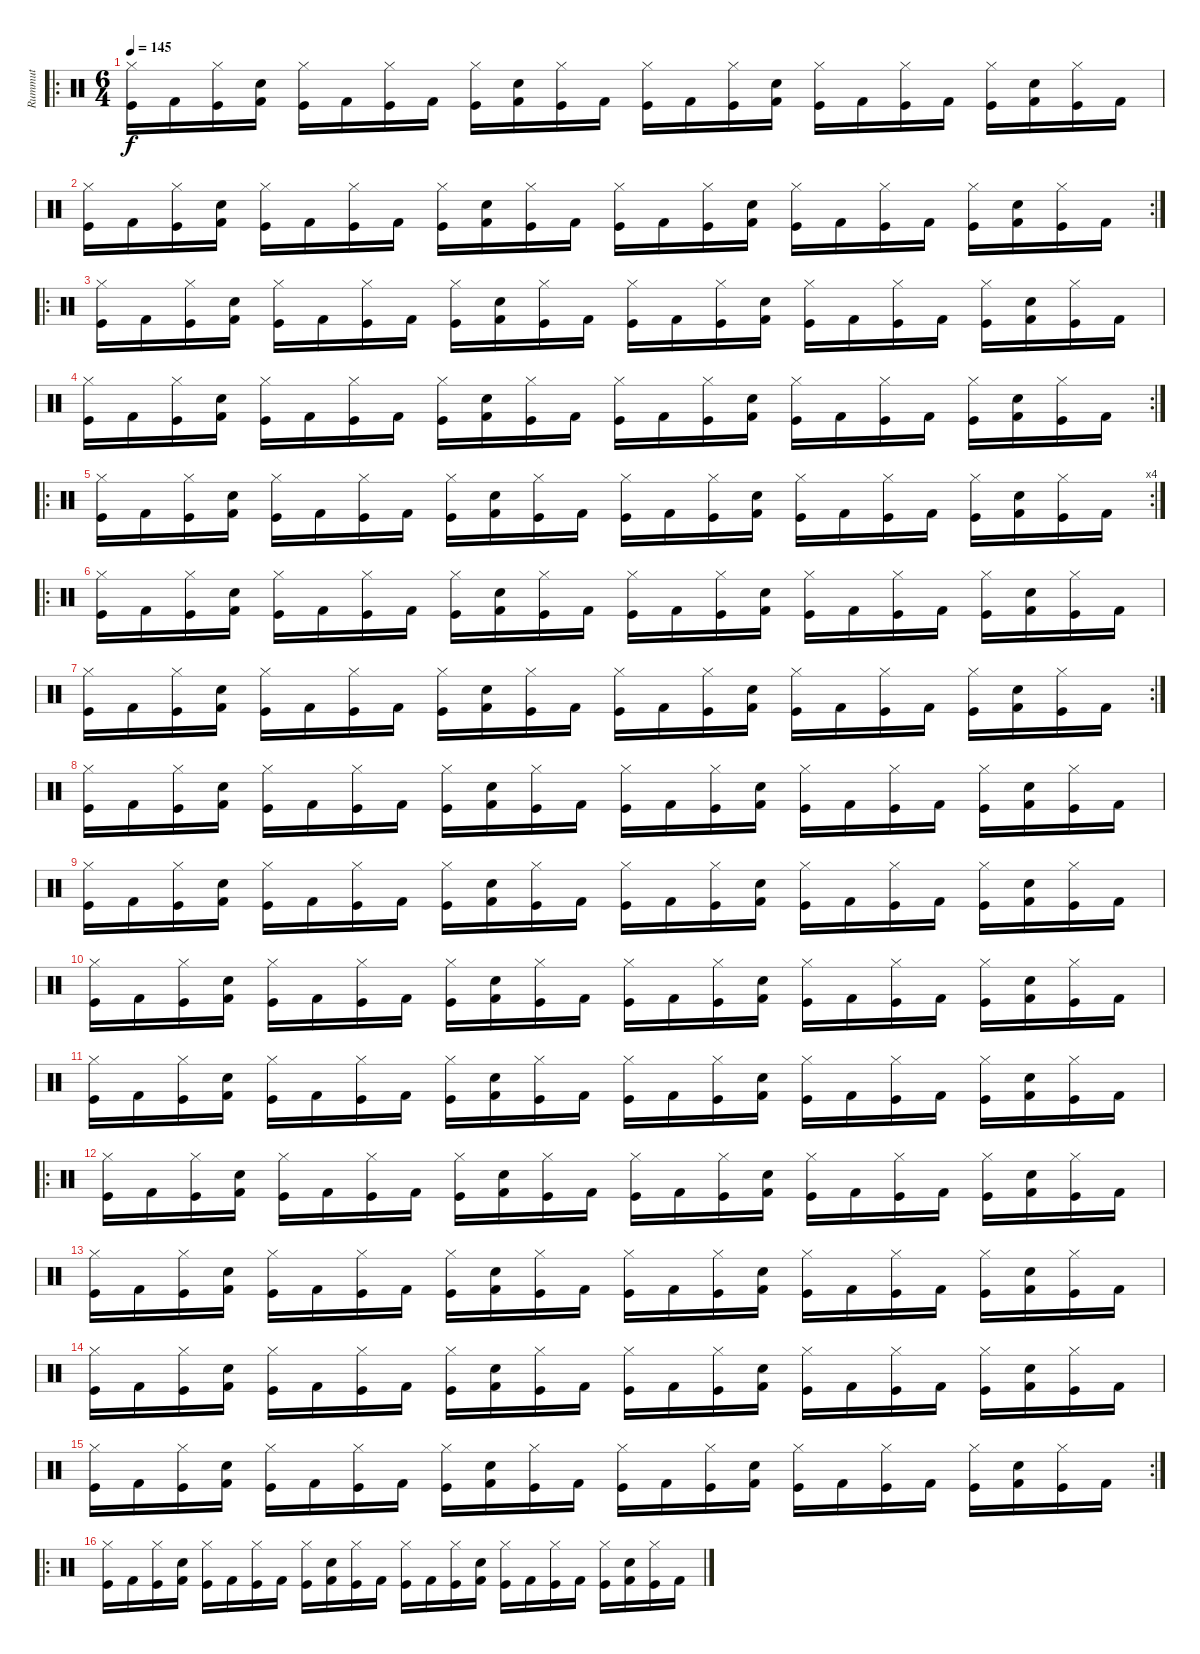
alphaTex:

\track ("Rummut" "Rummut") {instrument percussion}
\staff {score}
\articulation defaults
\ro
\ts (6 4)
\tempo 145
\clef neutral
\ks c
("Hi-Hat (closed)" "Kick (hit)").16{dy f} "Kick (hit) 2".16 ("Hi-Hat (closed)" "Kick (hit)").16 ("Snare (hit) 2" "Kick (hit) 2").16 ("Hi-Hat (closed)" "Kick (hit)").16 "Kick (hit) 2".16 ("Hi-Hat (closed)" "Kick (hit)").16 "Kick (hit) 2".16 ("Hi-Hat (closed)" "Kick (hit)").16 ("Snare (hit) 2" "Kick (hit) 2").16 ("Hi-Hat (closed)" "Kick (hit)").16 "Kick (hit) 2".16 ("Hi-Hat (closed)" "Kick (hit)").16 "Kick (hit) 2".16 ("Hi-Hat (closed)" "Kick (hit)").16 ("Snare (hit) 2" "Kick (hit) 2").16 ("Hi-Hat (closed)" "Kick (hit)").16 "Kick (hit) 2".16 ("Hi-Hat (closed)" "Kick (hit)").16 "Kick (hit) 2".16 ("Hi-Hat (closed)" "Kick (hit)").16 ("Snare (hit) 2" "Kick (hit) 2").16 ("Hi-Hat (closed)" "Kick (hit)").16 "Kick (hit) 2".16 |
\rc 2
("Hi-Hat (closed)" "Kick (hit)").16 "Kick (hit) 2".16 ("Hi-Hat (closed)" "Kick (hit)").16 ("Snare (hit) 2" "Kick (hit) 2").16 ("Hi-Hat (closed)" "Kick (hit)").16 "Kick (hit) 2".16 ("Hi-Hat (closed)" "Kick (hit)").16 "Kick (hit) 2".16 ("Hi-Hat (closed)" "Kick (hit)").16 ("Snare (hit) 2" "Kick (hit) 2").16 ("Hi-Hat (closed)" "Kick (hit)").16 "Kick (hit) 2".16 ("Hi-Hat (closed)" "Kick (hit)").16 "Kick (hit) 2".16 ("Hi-Hat (closed)" "Kick (hit)").16 ("Snare (hit) 2" "Kick (hit) 2").16 ("Hi-Hat (closed)" "Kick (hit)").16 "Kick (hit) 2".16 ("Hi-Hat (closed)" "Kick (hit)").16 "Kick (hit) 2".16 ("Hi-Hat (closed)" "Kick (hit)").16 ("Snare (hit) 2" "Kick (hit) 2").16 ("Hi-Hat (closed)" "Kick (hit)").16 "Kick (hit) 2".16 |
\ro
("Hi-Hat (closed)" "Kick (hit)").16 "Kick (hit) 2".16 ("Hi-Hat (closed)" "Kick (hit)").16 ("Snare (hit) 2" "Kick (hit) 2").16 ("Hi-Hat (closed)" "Kick (hit)").16 "Kick (hit) 2".16 ("Hi-Hat (closed)" "Kick (hit)").16 "Kick (hit) 2".16 ("Hi-Hat (closed)" "Kick (hit)").16 ("Snare (hit) 2" "Kick (hit) 2").16 ("Hi-Hat (closed)" "Kick (hit)").16 "Kick (hit) 2".16 ("Hi-Hat (closed)" "Kick (hit)").16 "Kick (hit) 2".16 ("Hi-Hat (closed)" "Kick (hit)").16 ("Snare (hit) 2" "Kick (hit) 2").16 ("Hi-Hat (closed)" "Kick (hit)").16 "Kick (hit) 2".16 ("Hi-Hat (closed)" "Kick (hit)").16 "Kick (hit) 2".16 ("Hi-Hat (closed)" "Kick (hit)").16 ("Snare (hit) 2" "Kick (hit) 2").16 ("Hi-Hat (closed)" "Kick (hit)").16 "Kick (hit) 2".16 |
\rc 2
("Hi-Hat (closed)" "Kick (hit)").16 "Kick (hit) 2".16 ("Hi-Hat (closed)" "Kick (hit)").16 ("Snare (hit) 2" "Kick (hit) 2").16 ("Hi-Hat (closed)" "Kick (hit)").16 "Kick (hit) 2".16 ("Hi-Hat (closed)" "Kick (hit)").16 "Kick (hit) 2".16 ("Hi-Hat (closed)" "Kick (hit)").16 ("Snare (hit) 2" "Kick (hit) 2").16 ("Hi-Hat (closed)" "Kick (hit)").16 "Kick (hit) 2".16 ("Hi-Hat (closed)" "Kick (hit)").16 "Kick (hit) 2".16 ("Hi-Hat (closed)" "Kick (hit)").16 ("Snare (hit) 2" "Kick (hit) 2").16 ("Hi-Hat (closed)" "Kick (hit)").16 "Kick (hit) 2".16 ("Hi-Hat (closed)" "Kick (hit)").16 "Kick (hit) 2".16 ("Hi-Hat (closed)" "Kick (hit)").16 ("Snare (hit) 2" "Kick (hit) 2").16 ("Hi-Hat (closed)" "Kick (hit)").16 "Kick (hit) 2".16 |
\ro
\rc 4
("Hi-Hat (closed)" "Kick (hit)").16 "Kick (hit) 2".16 ("Hi-Hat (closed)" "Kick (hit)").16 ("Snare (hit) 2" "Kick (hit) 2").16 ("Hi-Hat (closed)" "Kick (hit)").16 "Kick (hit) 2".16 ("Hi-Hat (closed)" "Kick (hit)").16 "Kick (hit) 2".16 ("Hi-Hat (closed)" "Kick (hit)").16 ("Snare (hit) 2" "Kick (hit) 2").16 ("Hi-Hat (closed)" "Kick (hit)").16 "Kick (hit) 2".16 ("Hi-Hat (closed)" "Kick (hit)").16 "Kick (hit) 2".16 ("Hi-Hat (closed)" "Kick (hit)").16 ("Snare (hit) 2" "Kick (hit) 2").16 ("Hi-Hat (closed)" "Kick (hit)").16 "Kick (hit) 2".16 ("Hi-Hat (closed)" "Kick (hit)").16 "Kick (hit) 2".16 ("Hi-Hat (closed)" "Kick (hit)").16 ("Snare (hit) 2" "Kick (hit) 2").16 ("Hi-Hat (closed)" "Kick (hit)").16 "Kick (hit) 2".16 |
\ro
("Hi-Hat (closed)" "Kick (hit)").16 "Kick (hit) 2".16 ("Hi-Hat (closed)" "Kick (hit)").16 ("Snare (hit) 2" "Kick (hit) 2").16 ("Hi-Hat (closed)" "Kick (hit)").16 "Kick (hit) 2".16 ("Hi-Hat (closed)" "Kick (hit)").16 "Kick (hit) 2".16 ("Hi-Hat (closed)" "Kick (hit)").16 ("Snare (hit) 2" "Kick (hit) 2").16 ("Hi-Hat (closed)" "Kick (hit)").16 "Kick (hit) 2".16 ("Hi-Hat (closed)" "Kick (hit)").16 "Kick (hit) 2".16 ("Hi-Hat (closed)" "Kick (hit)").16 ("Snare (hit) 2" "Kick (hit) 2").16 ("Hi-Hat (closed)" "Kick (hit)").16 "Kick (hit) 2".16 ("Hi-Hat (closed)" "Kick (hit)").16 "Kick (hit) 2".16 ("Hi-Hat (closed)" "Kick (hit)").16 ("Snare (hit) 2" "Kick (hit) 2").16 ("Hi-Hat (closed)" "Kick (hit)").16 "Kick (hit) 2".16 |
\rc 2
("Hi-Hat (closed)" "Kick (hit)").16 "Kick (hit) 2".16 ("Hi-Hat (closed)" "Kick (hit)").16 ("Snare (hit) 2" "Kick (hit) 2").16 ("Hi-Hat (closed)" "Kick (hit)").16 "Kick (hit) 2".16 ("Hi-Hat (closed)" "Kick (hit)").16 "Kick (hit) 2".16 ("Hi-Hat (closed)" "Kick (hit)").16 ("Snare (hit) 2" "Kick (hit) 2").16 ("Hi-Hat (closed)" "Kick (hit)").16 "Kick (hit) 2".16 ("Hi-Hat (closed)" "Kick (hit)").16 "Kick (hit) 2".16 ("Hi-Hat (closed)" "Kick (hit)").16 ("Snare (hit) 2" "Kick (hit) 2").16 ("Hi-Hat (closed)" "Kick (hit)").16 "Kick (hit) 2".16 ("Hi-Hat (closed)" "Kick (hit)").16 "Kick (hit) 2".16 ("Hi-Hat (closed)" "Kick (hit)").16 ("Snare (hit) 2" "Kick (hit) 2").16 ("Hi-Hat (closed)" "Kick (hit)").16 "Kick (hit) 2".16 |
("Hi-Hat (closed)" "Kick (hit)").16 "Kick (hit) 2".16 ("Hi-Hat (closed)" "Kick (hit)").16 ("Snare (hit) 2" "Kick (hit) 2").16 ("Hi-Hat (closed)" "Kick (hit)").16 "Kick (hit) 2".16 ("Hi-Hat (closed)" "Kick (hit)").16 "Kick (hit) 2".16 ("Hi-Hat (closed)" "Kick (hit)").16 ("Snare (hit) 2" "Kick (hit) 2").16 ("Hi-Hat (closed)" "Kick (hit)").16 "Kick (hit) 2".16 ("Hi-Hat (closed)" "Kick (hit)").16 "Kick (hit) 2".16 ("Hi-Hat (closed)" "Kick (hit)").16 ("Snare (hit) 2" "Kick (hit) 2").16 ("Hi-Hat (closed)" "Kick (hit)").16 "Kick (hit) 2".16 ("Hi-Hat (closed)" "Kick (hit)").16 "Kick (hit) 2".16 ("Hi-Hat (closed)" "Kick (hit)").16 ("Snare (hit) 2" "Kick (hit) 2").16 ("Hi-Hat (closed)" "Kick (hit)").16 "Kick (hit) 2".16 |
("Hi-Hat (closed)" "Kick (hit)").16 "Kick (hit) 2".16 ("Hi-Hat (closed)" "Kick (hit)").16 ("Snare (hit) 2" "Kick (hit) 2").16 ("Hi-Hat (closed)" "Kick (hit)").16 "Kick (hit) 2".16 ("Hi-Hat (closed)" "Kick (hit)").16 "Kick (hit) 2".16 ("Hi-Hat (closed)" "Kick (hit)").16 ("Snare (hit) 2" "Kick (hit) 2").16 ("Hi-Hat (closed)" "Kick (hit)").16 "Kick (hit) 2".16 ("Hi-Hat (closed)" "Kick (hit)").16 "Kick (hit) 2".16 ("Hi-Hat (closed)" "Kick (hit)").16 ("Snare (hit) 2" "Kick (hit) 2").16 ("Hi-Hat (closed)" "Kick (hit)").16 "Kick (hit) 2".16 ("Hi-Hat (closed)" "Kick (hit)").16 "Kick (hit) 2".16 ("Hi-Hat (closed)" "Kick (hit)").16 ("Snare (hit) 2" "Kick (hit) 2").16 ("Hi-Hat (closed)" "Kick (hit)").16 "Kick (hit) 2".16 |
("Hi-Hat (closed)" "Kick (hit)").16 "Kick (hit) 2".16 ("Hi-Hat (closed)" "Kick (hit)").16 ("Snare (hit) 2" "Kick (hit) 2").16 ("Hi-Hat (closed)" "Kick (hit)").16 "Kick (hit) 2".16 ("Hi-Hat (closed)" "Kick (hit)").16 "Kick (hit) 2".16 ("Hi-Hat (closed)" "Kick (hit)").16 ("Snare (hit) 2" "Kick (hit) 2").16 ("Hi-Hat (closed)" "Kick (hit)").16 "Kick (hit) 2".16 ("Hi-Hat (closed)" "Kick (hit)").16 "Kick (hit) 2".16 ("Hi-Hat (closed)" "Kick (hit)").16 ("Snare (hit) 2" "Kick (hit) 2").16 ("Hi-Hat (closed)" "Kick (hit)").16 "Kick (hit) 2".16 ("Hi-Hat (closed)" "Kick (hit)").16 "Kick (hit) 2".16 ("Hi-Hat (closed)" "Kick (hit)").16 ("Snare (hit) 2" "Kick (hit) 2").16 ("Hi-Hat (closed)" "Kick (hit)").16 "Kick (hit) 2".16 |
("Hi-Hat (closed)" "Kick (hit)").16 "Kick (hit) 2".16 ("Hi-Hat (closed)" "Kick (hit)").16 ("Snare (hit) 2" "Kick (hit) 2").16 ("Hi-Hat (closed)" "Kick (hit)").16 "Kick (hit) 2".16 ("Hi-Hat (closed)" "Kick (hit)").16 "Kick (hit) 2".16 ("Hi-Hat (closed)" "Kick (hit)").16 ("Snare (hit) 2" "Kick (hit) 2").16 ("Hi-Hat (closed)" "Kick (hit)").16 "Kick (hit) 2".16 ("Hi-Hat (closed)" "Kick (hit)").16 "Kick (hit) 2".16 ("Hi-Hat (closed)" "Kick (hit)").16 ("Snare (hit) 2" "Kick (hit) 2").16 ("Hi-Hat (closed)" "Kick (hit)").16 "Kick (hit) 2".16 ("Hi-Hat (closed)" "Kick (hit)").16 "Kick (hit) 2".16 ("Hi-Hat (closed)" "Kick (hit)").16 ("Snare (hit) 2" "Kick (hit) 2").16 ("Hi-Hat (closed)" "Kick (hit)").16 "Kick (hit) 2".16 |
\ro
("Hi-Hat (closed)" "Kick (hit)").16 "Kick (hit) 2".16 ("Hi-Hat (closed)" "Kick (hit)").16 ("Snare (hit) 2" "Kick (hit) 2").16 ("Hi-Hat (closed)" "Kick (hit)").16 "Kick (hit) 2".16 ("Hi-Hat (closed)" "Kick (hit)").16 "Kick (hit) 2".16 ("Hi-Hat (closed)" "Kick (hit)").16 ("Snare (hit) 2" "Kick (hit) 2").16 ("Hi-Hat (closed)" "Kick (hit)").16 "Kick (hit) 2".16 ("Hi-Hat (closed)" "Kick (hit)").16 "Kick (hit) 2".16 ("Hi-Hat (closed)" "Kick (hit)").16 ("Snare (hit) 2" "Kick (hit) 2").16 ("Hi-Hat (closed)" "Kick (hit)").16 "Kick (hit) 2".16 ("Hi-Hat (closed)" "Kick (hit)").16 "Kick (hit) 2".16 ("Hi-Hat (closed)" "Kick (hit)").16 ("Snare (hit) 2" "Kick (hit) 2").16 ("Hi-Hat (closed)" "Kick (hit)").16 "Kick (hit) 2".16 |
("Hi-Hat (closed)" "Kick (hit)").16 "Kick (hit) 2".16 ("Hi-Hat (closed)" "Kick (hit)").16 ("Snare (hit) 2" "Kick (hit) 2").16 ("Hi-Hat (closed)" "Kick (hit)").16 "Kick (hit) 2".16 ("Hi-Hat (closed)" "Kick (hit)").16 "Kick (hit) 2".16 ("Hi-Hat (closed)" "Kick (hit)").16 ("Snare (hit) 2" "Kick (hit) 2").16 ("Hi-Hat (closed)" "Kick (hit)").16 "Kick (hit) 2".16 ("Hi-Hat (closed)" "Kick (hit)").16 "Kick (hit) 2".16 ("Hi-Hat (closed)" "Kick (hit)").16 ("Snare (hit) 2" "Kick (hit) 2").16 ("Hi-Hat (closed)" "Kick (hit)").16 "Kick (hit) 2".16 ("Hi-Hat (closed)" "Kick (hit)").16 "Kick (hit) 2".16 ("Hi-Hat (closed)" "Kick (hit)").16 ("Snare (hit) 2" "Kick (hit) 2").16 ("Hi-Hat (closed)" "Kick (hit)").16 "Kick (hit) 2".16 |
("Hi-Hat (closed)" "Kick (hit)").16 "Kick (hit) 2".16 ("Hi-Hat (closed)" "Kick (hit)").16 ("Snare (hit) 2" "Kick (hit) 2").16 ("Hi-Hat (closed)" "Kick (hit)").16 "Kick (hit) 2".16 ("Hi-Hat (closed)" "Kick (hit)").16 "Kick (hit) 2".16 ("Hi-Hat (closed)" "Kick (hit)").16 ("Snare (hit) 2" "Kick (hit) 2").16 ("Hi-Hat (closed)" "Kick (hit)").16 "Kick (hit) 2".16 ("Hi-Hat (closed)" "Kick (hit)").16 "Kick (hit) 2".16 ("Hi-Hat (closed)" "Kick (hit)").16 ("Snare (hit) 2" "Kick (hit) 2").16 ("Hi-Hat (closed)" "Kick (hit)").16 "Kick (hit) 2".16 ("Hi-Hat (closed)" "Kick (hit)").16 "Kick (hit) 2".16 ("Hi-Hat (closed)" "Kick (hit)").16 ("Snare (hit) 2" "Kick (hit) 2").16 ("Hi-Hat (closed)" "Kick (hit)").16 "Kick (hit) 2".16 |
\rc 2
("Hi-Hat (closed)" "Kick (hit)").16 "Kick (hit) 2".16 ("Hi-Hat (closed)" "Kick (hit)").16 ("Snare (hit) 2" "Kick (hit) 2").16 ("Hi-Hat (closed)" "Kick (hit)").16 "Kick (hit) 2".16 ("Hi-Hat (closed)" "Kick (hit)").16 "Kick (hit) 2".16 ("Hi-Hat (closed)" "Kick (hit)").16 ("Snare (hit) 2" "Kick (hit) 2").16 ("Hi-Hat (closed)" "Kick (hit)").16 "Kick (hit) 2".16 ("Hi-Hat (closed)" "Kick (hit)").16 "Kick (hit) 2".16 ("Hi-Hat (closed)" "Kick (hit)").16 ("Snare (hit) 2" "Kick (hit) 2").16 ("Hi-Hat (closed)" "Kick (hit)").16 "Kick (hit) 2".16 ("Hi-Hat (closed)" "Kick (hit)").16 "Kick (hit) 2".16 ("Hi-Hat (closed)" "Kick (hit)").16 ("Snare (hit) 2" "Kick (hit) 2").16 ("Hi-Hat (closed)" "Kick (hit)").16 "Kick (hit) 2".16 |
\ro
("Hi-Hat (closed)" "Kick (hit)").16 "Kick (hit) 2".16 ("Hi-Hat (closed)" "Kick (hit)").16 ("Snare (hit) 2" "Kick (hit) 2").16 ("Hi-Hat (closed)" "Kick (hit)").16 "Kick (hit) 2".16 ("Hi-Hat (closed)" "Kick (hit)").16 "Kick (hit) 2".16 ("Hi-Hat (closed)" "Kick (hit)").16 ("Snare (hit) 2" "Kick (hit) 2").16 ("Hi-Hat (closed)" "Kick (hit)").16 "Kick (hit) 2".16 ("Hi-Hat (closed)" "Kick (hit)").16 "Kick (hit) 2".16 ("Hi-Hat (closed)" "Kick (hit)").16 ("Snare (hit) 2" "Kick (hit) 2").16 ("Hi-Hat (closed)" "Kick (hit)").16 "Kick (hit) 2".16 ("Hi-Hat (closed)" "Kick (hit)").16 "Kick (hit) 2".16 ("Hi-Hat (closed)" "Kick (hit)").16 ("Snare (hit) 2" "Kick (hit) 2").16 ("Hi-Hat (closed)" "Kick (hit)").16 "Kick (hit) 2".16
